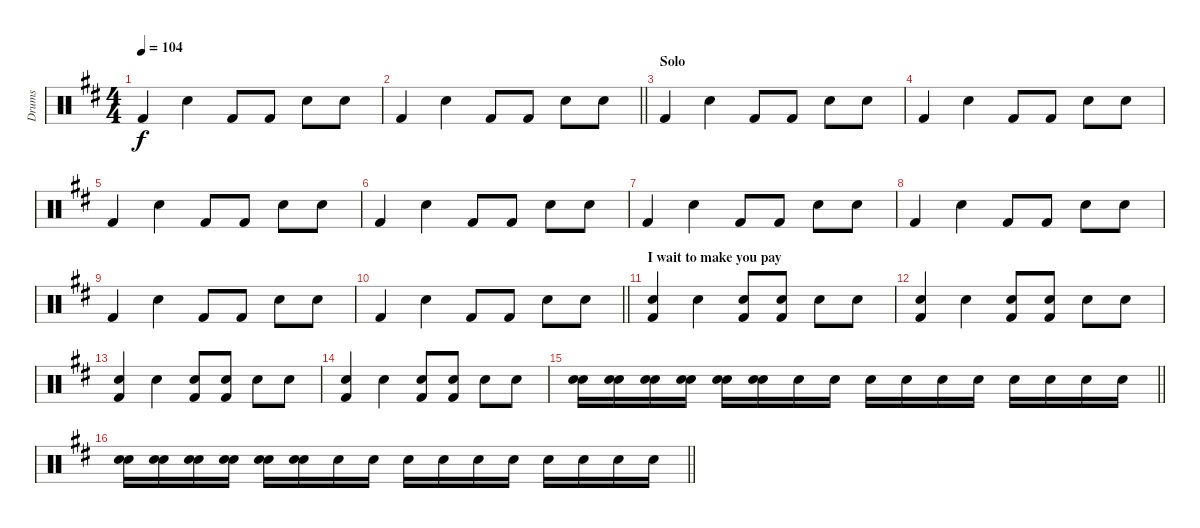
\track ("Drums" "Drums") {instrument percussion}
\staff {score}
\articulation defaults
\ts (4 4)
\tempo 104
\clef neutral
\ks d "Kick (hit) 2".4{dy f} "Electric Snare (hit)".4 "Kick (hit) 2".8 "Kick (hit) 2".8 "Electric Snare (hit)".8 "Electric Snare (hit)".8
|
\barLineRight lightlight "Kick (hit) 2".4 "Electric Snare (hit)".4 "Kick (hit) 2".8 "Kick (hit) 2".8 "Electric Snare (hit)".8 "Electric Snare (hit)".8
|
\section ("" "Solo")
"Kick (hit) 2".4 "Electric Snare (hit)".4 "Kick (hit) 2".8 "Kick (hit) 2".8 "Electric Snare (hit)".8 "Electric Snare (hit)".8 |
"Kick (hit) 2".4 "Electric Snare (hit)".4 "Kick (hit) 2".8 "Kick (hit) 2".8 "Electric Snare (hit)".8 "Electric Snare (hit)".8 |
"Kick (hit) 2".4 "Electric Snare (hit)".4 "Kick (hit) 2".8 "Kick (hit) 2".8 "Electric Snare (hit)".8 "Electric Snare (hit)".8 |
"Kick (hit) 2".4 "Electric Snare (hit)".4 "Kick (hit) 2".8 "Kick (hit) 2".8 "Electric Snare (hit)".8 "Electric Snare (hit)".8 |
"Kick (hit) 2".4 "Electric Snare (hit)".4 "Kick (hit) 2".8 "Kick (hit) 2".8 "Electric Snare (hit)".8 "Electric Snare (hit)".8 |
"Kick (hit) 2".4 "Electric Snare (hit)".4 "Kick (hit) 2".8 "Kick (hit) 2".8 "Electric Snare (hit)".8 "Electric Snare (hit)".8 |
"Kick (hit) 2".4 "Electric Snare (hit)".4 "Kick (hit) 2".8 "Kick (hit) 2".8 "Electric Snare (hit)".8 "Electric Snare (hit)".8 |
\barLineRight lightlight "Kick (hit) 2".4 "Electric Snare (hit)".4 "Kick (hit) 2".8 "Kick (hit) 2".8 "Electric Snare (hit)".8 "Electric Snare (hit)".8
|
\section ("" "I wait to make you pay")
("Snare (hit)" "Kick (hit) 2").4 "Electric Snare (hit)".4 ("Snare (hit)" "Kick (hit) 2").8 ("Snare (hit)" "Kick (hit) 2").8 "Electric Snare (hit)".8 "Electric Snare (hit)".8 |
("Snare (hit)" "Kick (hit) 2").4 "Electric Snare (hit)".4 ("Snare (hit)" "Kick (hit) 2").8 ("Snare (hit)" "Kick (hit) 2").8 "Electric Snare (hit)".8 "Electric Snare (hit)".8 |
("Snare (hit)" "Kick (hit) 2").4 "Electric Snare (hit)".4 ("Snare (hit)" "Kick (hit) 2").8 ("Snare (hit)" "Kick (hit) 2").8 "Electric Snare (hit)".8 "Electric Snare (hit)".8 |
("Snare (hit)" "Kick (hit) 2").4 "Electric Snare (hit)".4 ("Snare (hit)" "Kick (hit) 2").8 ("Snare (hit)" "Kick (hit) 2").8 "Electric Snare (hit)".8 "Electric Snare (hit)".8 |
\barLineRight lightlight
("Snare (hit)" "Electric Snare (hit)").16 ("Electric Snare (hit)" "Electric Snare (hit)").16 ("Snare (hit)" "Electric Snare (hit)").16 ("Snare (hit)" "Electric Snare (hit)").16 ("Electric Snare (hit)" "Electric Snare (hit)").16 ("Electric Snare (hit)" "Electric Snare (hit)").16 "Electric Snare (hit)".16 "Electric Snare (hit)".16 "Electric Snare (hit)".16 "Electric Snare (hit)".16 "Electric Snare (hit)".16 "Electric Snare (hit)".16 "Electric Snare (hit)".16 "Electric Snare (hit)".16 "Electric Snare (hit)".16 "Electric Snare (hit)".16 |
\barLineRight lightlight
("Snare (hit)" "Electric Snare (hit)").16 ("Electric Snare (hit)" "Electric Snare (hit)").16 ("Snare (hit)" "Electric Snare (hit)").16 ("Snare (hit)" "Electric Snare (hit)").16 ("Electric Snare (hit)" "Electric Snare (hit)").16 ("Electric Snare (hit)" "Electric Snare (hit)").16 "Electric Snare (hit)".16 "Electric Snare (hit)".16 "Electric Snare (hit)".16 "Electric Snare (hit)".16 "Electric Snare (hit)".16 "Electric Snare (hit)".16 "Electric Snare (hit)".16 "Electric Snare (hit)".16 "Electric Snare (hit)".16 "Electric Snare (hit)".16
